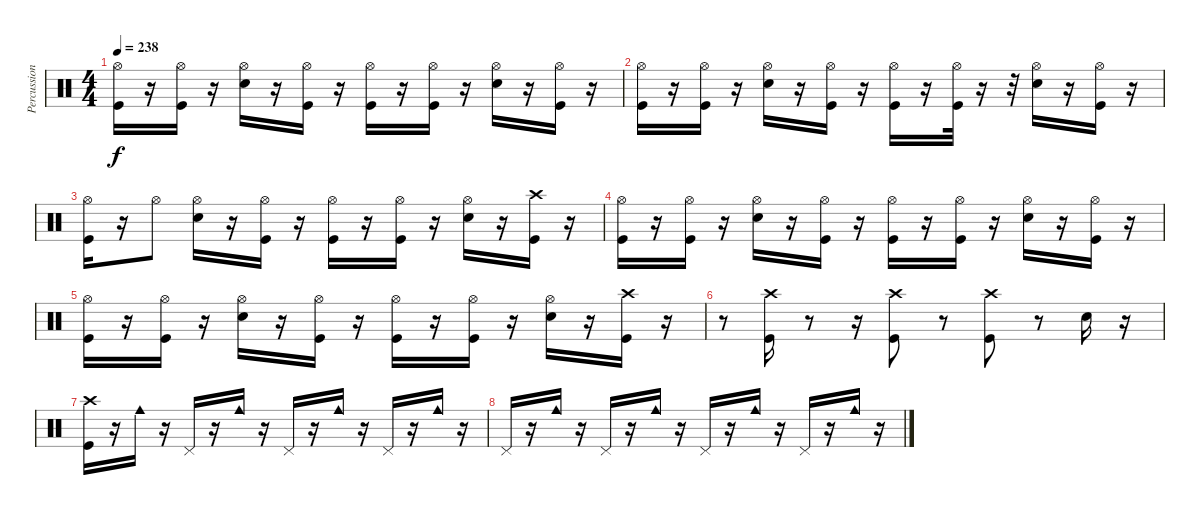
\track ("Percussion" "Percussion") {instrument percussion}
\staff {score}
\articulation defaults
\ts (4 4)
\tempo 238
\clef neutral
\ks c
("Kick (hit)" "Hi-Hat (open)").16{dy f} r.16 ("Hi-Hat (open)" "Kick (hit)").16 r.16 ("Snare (hit) 2" "Hi-Hat (open)").16 r.16 ("Hi-Hat (open)" "Kick (hit)").16 r.16 ("Hi-Hat (open)" "Kick (hit)").16 r.16 ("Kick (hit)" "Hi-Hat (open)").16 r.16 ("Hi-Hat (open)" "Snare (hit) 2").16 r.16 ("Hi-Hat (open)" "Kick (hit)").16 r.16 |
("Hi-Hat (open)" "Kick (hit)").16 r.16 ("Kick (hit)" "Hi-Hat (open)").16 r.16 ("Hi-Hat (open)" "Snare (hit) 2").16 r.16 ("Hi-Hat (open)" "Kick (hit)").16 r.16 ("Hi-Hat (open)" "Kick (hit)").16 r.16 ("Hi-Hat (open)" "Kick (hit)").32 r.16 r.32 ("Snare (hit) 2" "Hi-Hat (open)").16 r.16 ("Hi-Hat (open)" "Kick (hit)").16 r.16 |
("Hi-Hat (open)" "Kick (hit)").16 r.16 "Hi-Hat (open)".8 ("Snare (hit) 2" "Hi-Hat (open)").16 r.16 ("Hi-Hat (open)" "Kick (hit)").16 r.16 ("Hi-Hat (open)" "Kick (hit)").16 r.16 ("Kick (hit)" "Hi-Hat (open)").16 r.16 ("Snare (hit) 2" "Hi-Hat (open)").16 r.16 ("Kick (hit)" "Crash high (hit)").16 r.16 |
("Hi-Hat (open)" "Kick (hit)").16 r.16 ("Hi-Hat (open)" "Kick (hit)").16 r.16 ("Snare (hit) 2" "Hi-Hat (open)").16 r.16 ("Hi-Hat (open)" "Kick (hit)").16 r.16 ("Hi-Hat (open)" "Kick (hit)").16 r.16 ("Kick (hit)" "Hi-Hat (open)").16 r.16 ("Snare (hit) 2" "Hi-Hat (open)").16 r.16 ("Kick (hit)" "Hi-Hat (open)").16 r.16 |
("Kick (hit)" "Hi-Hat (open)").16 r.16 ("Hi-Hat (open)" "Kick (hit)").16 r.16 ("Snare (hit) 2" "Hi-Hat (open)").16 r.16 ("Hi-Hat (open)" "Kick (hit)").16 r.16 ("Hi-Hat (open)" "Kick (hit)").16 r.16 ("Kick (hit)" "Hi-Hat (open)").16 r.16 ("Snare (hit) 2" "Hi-Hat (open)").16 r.16 ("Kick (hit)" "Crash high (hit)").16 r.16 |
r.8 ("Crash high (hit)" "Kick (hit)").16 r.8 r.16 ("Kick (hit)" "Crash high (hit)").8 r.8 ("Kick (hit)" "Crash high (hit)").8 r.8 "Snare (hit) 2".16 r.16 |
("Kick (hit)" "Crash high (hit)").16 r.16 "Cowbell medium (hit)".16 r.16 "Pedal Hi-Hat (hit)".16 r.16 "Cowbell medium (hit)".16 r.16 "Pedal Hi-Hat (hit)".16 r.16 "Cowbell medium (hit)".16 r.16 "Pedal Hi-Hat (hit)".16 r.16 "Cowbell medium (hit)".16 r.16 |
"Pedal Hi-Hat (hit)".16 r.16 "Cowbell medium (hit)".16 r.16 "Pedal Hi-Hat (hit)".16 r.16 "Cowbell medium (hit)".16 r.16 "Pedal Hi-Hat (hit)".16 r.16 "Cowbell medium (hit)".16 r.16 "Pedal Hi-Hat (hit)".16 r.16 "Cowbell medium (hit)".16 r.16
